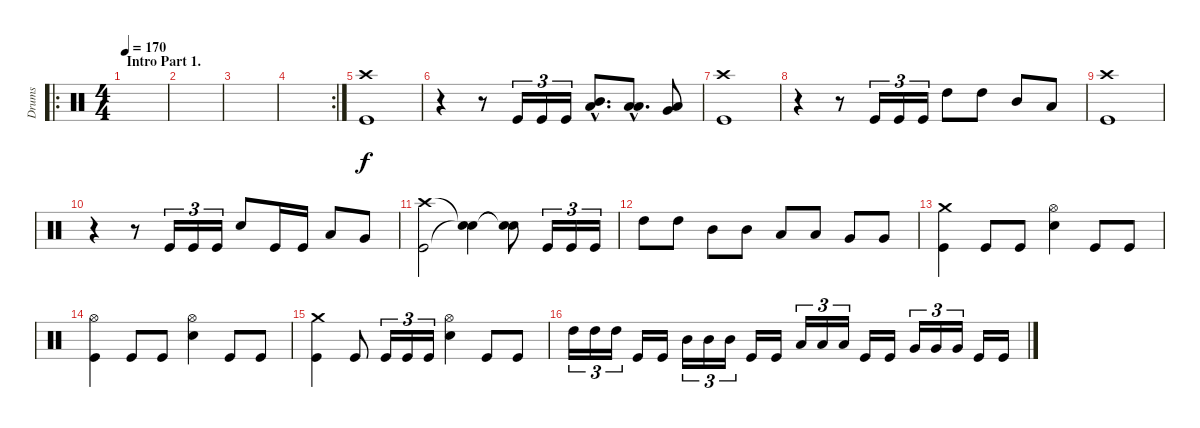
\track ("Drums" "Drums") {instrument percussion}
\staff {score}
\articulation defaults
\ro
\ts (4 4)
\section ("" "Intro Part 1.")
\tempo 170
\tempo 150
\tempo 170
\clef neutral
\ks c
|
|
|
\rc 2
|
("Crash high (hit)" "Kick (hit)").1 |
r.4 r.8 "Kick (hit)".16{tu (3 2)} "Kick (hit)".16{tu (3 2)} "Kick (hit)".16{tu (3 2)} ("Mid Tom (hit)"{hac} "Low Floor Tom (hit)"{hac}).8{d} ("Low Tom (hit)"{hac} "Low Floor Tom (hit)"{hac}).8{d} ("Very Low Tom (hit)" "Low Floor Tom (hit)").8 |
("Crash high (hit)" "Kick (hit)").1 |
r.4 r.8 "Kick (hit)".16{tu (3 2)} "Kick (hit)".16{tu (3 2)} "Kick (hit)".16{tu (3 2)} "High Tom (hit)".8 "High Tom (hit)".8 "Mid Tom (hit)".8 "Low Tom (hit)".8 |
("Crash high (hit)" "Kick (hit)").1 |
r.4 r.8 "Kick (hit)".16{tu (3 2)} "Kick (hit)".16{tu (3 2)} "Kick (hit)".16{tu (3 2)} "Snare (hit) 2".8 "Kick (hit)".16 "Kick (hit)".16 "Low Tom (hit)".8 "Very Low Tom (hit)".8 |
("Crash high (hit)" "Kick (hit)").2 ("Snare (hit)"{t} "Snare (hit)"{t}).4 ("Snare (hit)"{t} "Snare (hit)"{t}).8 "Kick (hit)".16{tu (3 2)} "Kick (hit)".16{tu (3 2)} "Kick (hit)".16{tu (3 2)} |
"High Tom (hit)".8 "High Tom (hit)".8 "Mid Tom (hit)".8 "Mid Tom (hit)".8 "Low Tom (hit)".8 "Low Tom (hit)".8 "Very Low Tom (hit)".8 "Very Low Tom (hit)".8 |
("Crash medium (hit)" "Kick (hit)").4 "Kick (hit)".8 "Kick (hit)".8 ("Hi-Hat (open)" "Snare (hit) 2").4 "Kick (hit)".8 "Kick (hit)".8 |
("Hi-Hat (open)" "Kick (hit)").4 "Kick (hit)".8 "Kick (hit)".8 ("Hi-Hat (open)" "Snare (hit) 2").4 "Kick (hit)".8 "Kick (hit)".8 |
("Crash medium (hit)" "Kick (hit)").4 "Kick (hit)".8 "Kick (hit)".16{tu (3 2)} "Kick (hit)".16{tu (3 2)} "Kick (hit)".16{tu (3 2)} ("Hi-Hat (open)" "Snare (hit) 2").4 "Kick (hit)".8 "Kick (hit)".8 |
"High Tom (hit)".16{tu (3 2)} "High Tom (hit)".16{tu (3 2)} "High Tom (hit)".16{tu (3 2)} "Kick (hit)".16 "Kick (hit)".16 "Mid Tom (hit)".16{tu (3 2)} "Mid Tom (hit)".16{tu (3 2)} "Mid Tom (hit)".16{tu (3 2)} "Kick (hit)".16 "Kick (hit)".16 "Low Tom (hit)".16{tu (3 2)} "Low Tom (hit)".16{tu (3 2)} "Low Tom (hit)".16{tu (3 2)} "Kick (hit)".16 "Kick (hit)".16 "Very Low Tom (hit)".16{tu (3 2)} "Very Low Tom (hit)".16{tu (3 2)} "Very Low Tom (hit)".16{tu (3 2)} "Kick (hit)".16 "Kick (hit)".16
